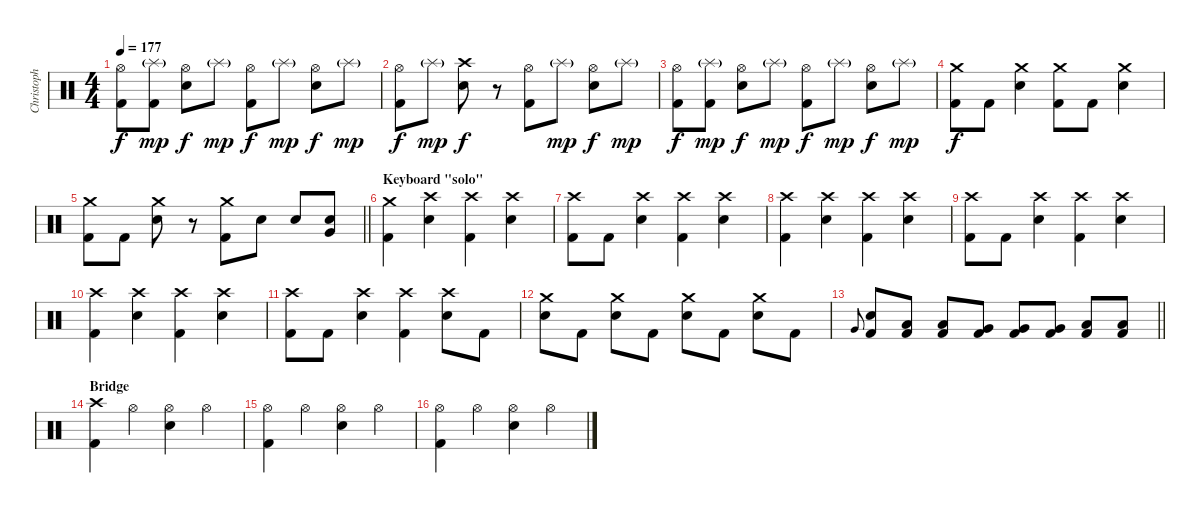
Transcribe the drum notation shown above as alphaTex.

\track ("Christoph Schneider [drums]" "Christoph ") {instrument percussion}
\staff {score}
\articulation defaults
\ts (4 4)
\tempo 177
\clef neutral
\ks c
("Hi-Hat (open)" "Kick (hit) 2").8{dy f} ("Splash (hit)"{g} "Kick (hit) 2").8{dy mp} ("Hi-Hat (open)" "Snare (hit) 2").8{dy f} "Splash (hit)"{g}.8{dy mp} ("Hi-Hat (open)" "Kick (hit) 2").8{dy f} "Splash (hit)"{g}.8{dy mp} ("Hi-Hat (open)" "Snare (hit) 2").8{dy f} "Splash (hit)"{g}.8{dy mp} |
("Hi-Hat (open)" "Kick (hit) 2").8{dy f} "Splash (hit)"{g}.8{dy mp} ("Crash high (hit)" "Snare (hit) 2").8{dy f} r.8 ("Hi-Hat (open)" "Kick (hit) 2").8 "Splash (hit)"{g}.8{dy mp} ("Hi-Hat (open)" "Snare (hit) 2").8{dy f} "Splash (hit)"{g}.8{dy mp} |
("Hi-Hat (open)" "Kick (hit) 2").8{dy f} ("Splash (hit)"{g} "Kick (hit) 2").8{dy mp} ("Hi-Hat (open)" "Snare (hit) 2").8{dy f} "Splash (hit)"{g}.8{dy mp} ("Hi-Hat (open)" "Kick (hit) 2").8{dy f} "Splash (hit)"{g}.8{dy mp} ("Hi-Hat (open)" "Snare (hit) 2").8{dy f} "Splash (hit)"{g}.8{dy mp} |
("Crash medium (hit)" "Kick (hit) 2").8{dy f} "Kick (hit) 2".8 ("Crash medium (hit)" "Snare (hit) 2").4 ("Crash medium (hit)" "Kick (hit) 2").8 "Kick (hit) 2".8 ("Crash medium (hit)" "Snare (hit) 2").4 |
\barLineRight lightlight
("Crash medium (hit)" "Kick (hit) 2").8 "Kick (hit) 2".8 ("Crash medium (hit)" "Snare (hit) 2").8 r.8 ("Crash medium (hit)" "Kick (hit) 2").8 "Snare (hit) 2".8 "Snare (hit) 2".8 ("Very Low Tom (hit)" "Snare (hit) 2").8 |
\section ("" "Keyboard \"solo\"")
("Crash medium (hit)" "Kick (hit) 2").4 ("Crash high (hit)" "Snare (hit) 2").4 ("Crash high (hit)" "Kick (hit) 2").4 ("Crash high (hit)" "Snare (hit) 2").4 |
("Crash high (hit)" "Kick (hit) 2").8 "Kick (hit) 2".8 ("Crash high (hit)" "Snare (hit) 2").4 ("Crash high (hit)" "Kick (hit) 2").4 ("Crash high (hit)" "Snare (hit) 2").4 |
("Crash high (hit)" "Kick (hit) 2").4 ("Crash high (hit)" "Snare (hit) 2").4 ("Crash high (hit)" "Kick (hit) 2").4 ("Crash high (hit)" "Snare (hit) 2").4 |
("Crash high (hit)" "Kick (hit) 2").8 "Kick (hit) 2".8 ("Crash high (hit)" "Snare (hit) 2").4 ("Crash high (hit)" "Kick (hit) 2").4 ("Crash high (hit)" "Snare (hit) 2").4 |
("Crash high (hit)" "Kick (hit) 2").4 ("Crash high (hit)" "Snare (hit) 2").4 ("Crash high (hit)" "Kick (hit) 2").4 ("Crash high (hit)" "Snare (hit) 2").4 |
("Crash high (hit)" "Kick (hit) 2").8 "Kick (hit) 2".8 ("Crash high (hit)" "Snare (hit) 2").4 ("Crash high (hit)" "Kick (hit) 2").4 ("Crash high (hit)" "Snare (hit) 2").8 "Kick (hit) 2".8 |
("Crash medium (hit)" "Snare (hit) 2").8 "Kick (hit) 2".8 ("Crash medium (hit)" "Snare (hit) 2").8 "Kick (hit) 2".8 ("Crash medium (hit)" "Snare (hit) 2").8 "Kick (hit) 2".8 ("Crash medium (hit)" "Snare (hit) 2").8 "Kick (hit) 2".8 |
\barLineRight lightlight "Very Low Tom (hit)".8{gr onbeat}
("Snare (hit) 2" "Kick (hit) 2").8 ("Low Tom (hit)" "Kick (hit) 2").8 ("Low Tom (hit)" "Kick (hit) 2").8 ("Very Low Tom (hit)" "Kick (hit) 2").8 ("Very Low Tom (hit)" "Kick (hit) 2").8 ("Very Low Tom (hit)" "Kick (hit) 2").8 ("Low Floor Tom (hit)" "Kick (hit) 2").8 ("Low Floor Tom (hit)" "Kick (hit) 2").8 |
\section ("" "Bridge")
("Crash high (hit)" "Kick (hit) 2").4 "Hi-Hat (open)".4 ("Hi-Hat (open)" "Snare (hit) 2").4 "Hi-Hat (open)".4 |
("Hi-Hat (open)" "Kick (hit) 2").4 "Hi-Hat (open)".4 ("Hi-Hat (open)" "Snare (hit) 2").4 "Hi-Hat (open)".4 |
("Hi-Hat (open)" "Kick (hit) 2").4 "Hi-Hat (open)".4 ("Hi-Hat (open)" "Snare (hit) 2").4 "Hi-Hat (open)".4
